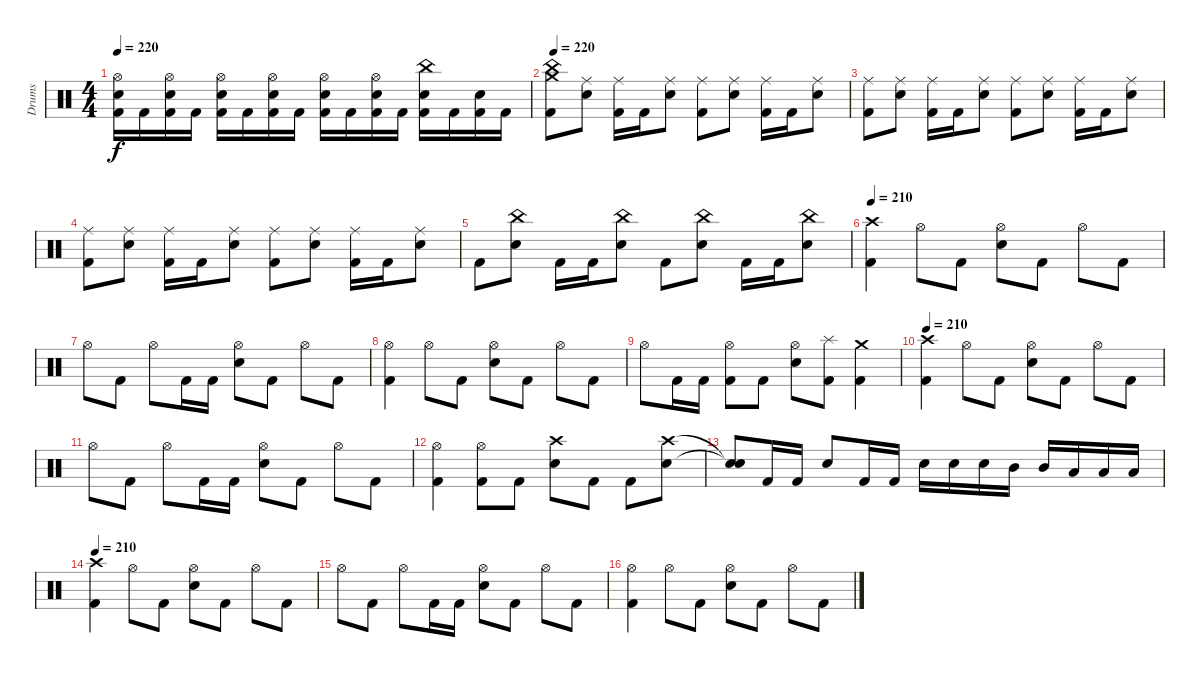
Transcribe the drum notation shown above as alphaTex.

\track ("Drums" "Drums") {instrument percussion}
\staff {score}
\articulation defaults
\ts (4 4)
\tempo 220
\clef neutral
\ks c
("Hi-Hat (open)" "Electric Snare (hit)" "Kick (hit) 2").16{dy f} "Kick (hit) 2".16 ("Hi-Hat (open)" "Electric Snare (hit)" "Kick (hit) 2").16 "Kick (hit) 2".16 ("Hi-Hat (open)" "Electric Snare (hit)" "Kick (hit) 2").16 "Kick (hit) 2".16 ("Hi-Hat (open)" "Electric Snare (hit)" "Kick (hit) 2").16 "Kick (hit) 2".16 ("Hi-Hat (open)" "Electric Snare (hit)" "Kick (hit) 2").16 "Kick (hit) 2".16 ("Hi-Hat (open)" "Electric Snare (hit)" "Kick (hit) 2").16 "Kick (hit) 2".16 ("China (hit)" "Electric Snare (hit)" "Kick (hit) 2").16 "Kick (hit) 2".16 ("Electric Snare (hit)" "Kick (hit) 2").16 "Kick (hit) 2".16 |
\tempo 220
("Crash medium (hit)" "China (hit)" "Kick (hit) 2").8 ("Ride (middle)" "Electric Snare (hit)").8 ("Ride (middle)" "Kick (hit) 2").16 "Kick (hit) 2".16 ("Ride (middle)" "Electric Snare (hit)").8 ("Ride (middle)" "Kick (hit) 2").8 ("Ride (middle)" "Electric Snare (hit)").8 ("Ride (middle)" "Kick (hit) 2").16 "Kick (hit) 2".16 ("Ride (middle)" "Electric Snare (hit)").8 |
("Ride (middle)" "Kick (hit) 2").8 ("Ride (middle)" "Electric Snare (hit)").8 ("Ride (middle)" "Kick (hit) 2").16 "Kick (hit) 2".16 ("Ride (middle)" "Electric Snare (hit)").8 ("Ride (middle)" "Kick (hit) 2").8 ("Ride (middle)" "Electric Snare (hit)").8 ("Ride (middle)" "Kick (hit) 2").16 "Kick (hit) 2".16 ("Ride (middle)" "Electric Snare (hit)").8 |
("Ride (middle)" "Kick (hit) 2").8 ("Ride (middle)" "Electric Snare (hit)").8 ("Ride (middle)" "Kick (hit) 2").16 "Kick (hit) 2".16 ("Ride (middle)" "Electric Snare (hit)").8 ("Ride (middle)" "Kick (hit) 2").8 ("Ride (middle)" "Electric Snare (hit)").8 ("Ride (middle)" "Kick (hit) 2").16 "Kick (hit) 2".16 ("Ride (middle)" "Electric Snare (hit)").8 |
"Kick (hit) 2".8 ("China (hit)" "Electric Snare (hit)").8 "Kick (hit) 2".16 "Kick (hit) 2".16 ("China (hit)" "Electric Snare (hit)").8 "Kick (hit) 2".8 ("China (hit)" "Electric Snare (hit)").8 "Kick (hit) 2".16 "Kick (hit) 2".16 ("China (hit)" "Electric Snare (hit)").8 |
\tempo 210
("Crash high (hit)" "Kick (hit) 2").4 "Hi-Hat (open)".8 "Kick (hit) 2".8 ("Hi-Hat (open)" "Electric Snare (hit)").8 "Kick (hit) 2".8 "Hi-Hat (open)".8 "Kick (hit) 2".8 |
"Hi-Hat (open)".8 "Kick (hit) 2".8 "Hi-Hat (open)".8 "Kick (hit) 2".16 "Kick (hit) 2".16 ("Hi-Hat (open)" "Electric Snare (hit)").8 "Kick (hit) 2".8 "Hi-Hat (open)".8 "Kick (hit) 2".8 |
("Hi-Hat (open)" "Kick (hit) 2").4 "Hi-Hat (open)".8 "Kick (hit) 2".8 ("Hi-Hat (open)" "Electric Snare (hit)").8 "Kick (hit) 2".8 "Hi-Hat (open)".8 "Kick (hit) 2".8 |
"Hi-Hat (open)".8 "Kick (hit) 2".16 "Kick (hit) 2".16 ("Hi-Hat (open)" "Kick (hit) 2").8 "Kick (hit) 2".8 ("Hi-Hat (open)" "Electric Snare (hit)").8 ("Splash (hit)" "Kick (hit) 2").8 ("Crash medium (hit)" "Kick (hit) 2").4 |
\tempo 210
("Crash high (hit)" "Kick (hit) 2").4 "Hi-Hat (open)".8 "Kick (hit) 2".8 ("Hi-Hat (open)" "Electric Snare (hit)").8 "Kick (hit) 2".8 "Hi-Hat (open)".8 "Kick (hit) 2".8 |
"Hi-Hat (open)".8 "Kick (hit) 2".8 "Hi-Hat (open)".8 "Kick (hit) 2".16 "Kick (hit) 2".16 ("Hi-Hat (open)" "Electric Snare (hit)").8 "Kick (hit) 2".8 "Hi-Hat (open)".8 "Kick (hit) 2".8 |
("Hi-Hat (open)" "Kick (hit) 2").4 ("Hi-Hat (open)" "Kick (hit) 2").8 "Kick (hit) 2".8 ("Crash high (hit)" "Electric Snare (hit)").8 "Kick (hit) 2".8 "Kick (hit) 2".8 ("Crash high (hit)" "Electric Snare (hit)").8 |
("Snare (hit)"{t} "Snare (hit)"{t}).8 "Kick (hit) 2".16 "Kick (hit) 2".16 "Electric Snare (hit)".8 "Kick (hit) 2".16 "Kick (hit) 2".16 "Electric Snare (hit)".16 "Electric Snare (hit)".16 "Electric Snare (hit)".16 "Mid Tom (hit)".16 "Mid Tom (hit)".16 "Low Tom (hit)".16 "Low Tom (hit)".16 "Low Tom (hit)".16 |
\tempo 210
("Crash high (hit)" "Kick (hit) 2").4 "Hi-Hat (open)".8 "Kick (hit) 2".8 ("Hi-Hat (open)" "Electric Snare (hit)").8 "Kick (hit) 2".8 "Hi-Hat (open)".8 "Kick (hit) 2".8 |
"Hi-Hat (open)".8 "Kick (hit) 2".8 "Hi-Hat (open)".8 "Kick (hit) 2".16 "Kick (hit) 2".16 ("Hi-Hat (open)" "Electric Snare (hit)").8 "Kick (hit) 2".8 "Hi-Hat (open)".8 "Kick (hit) 2".8 |
("Hi-Hat (open)" "Kick (hit) 2").4 "Hi-Hat (open)".8 "Kick (hit) 2".8 ("Hi-Hat (open)" "Electric Snare (hit)").8 "Kick (hit) 2".8 "Hi-Hat (open)".8 "Kick (hit) 2".8
